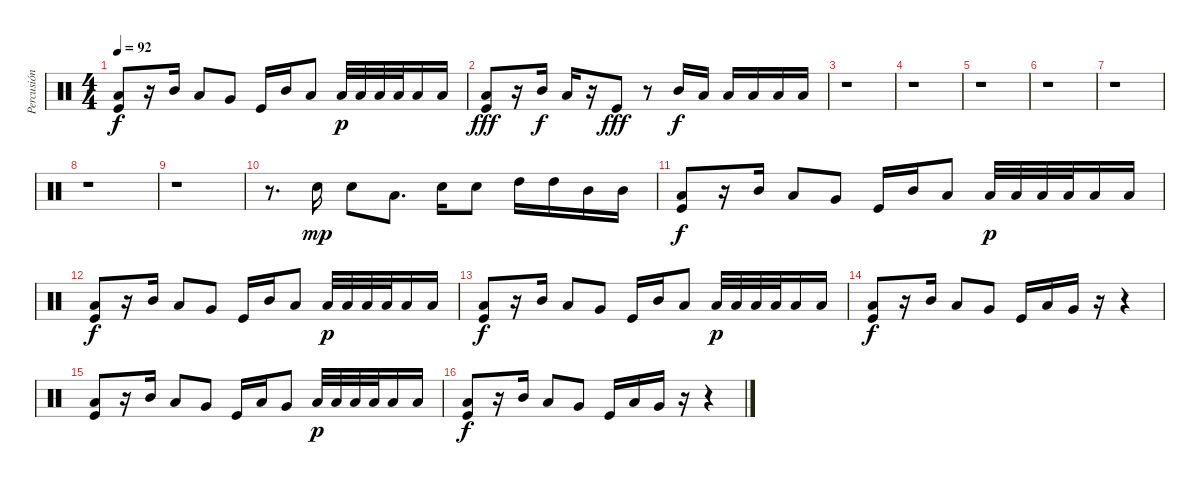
\track ("Percusión" "Percusión") {instrument percussion}
\staff {score}
\articulation defaults
\ts (4 4)
\tempo 92
\clef neutral
\ks c
("Low Tom (hit)" "Kick (hit)").8{dy f} r.16 "Mid Tom (hit)".16 "Low Tom (hit)".8 "Very Low Tom (hit)".8 "Kick (hit)".16 "Mid Tom (hit)".16 "Low Tom (hit)".8 "Low Floor Tom (hit)".32{dy p} "Low Floor Tom (hit)".32 "Low Floor Tom (hit)".32 "Low Floor Tom (hit)".32 "Low Floor Tom (hit)".16 "Low Floor Tom (hit)".16 |
("Low Tom (hit)" "Kick (hit)").8{dy fff} r.16 "Mid Tom (hit)".16{dy f} "Low Tom (hit)".16 r.16 "Kick (hit)".8{dy fff} r.8 "Mid Tom (hit)".16{dy f} "Low Tom (hit)".16 "Low Floor Tom (hit)".16 "Low Floor Tom (hit)".16 "Low Floor Tom (hit)".16 "Low Floor Tom (hit)".16 |
r.1 |
r.1 |
r.1 |
r.1 |
r.1 |
r.1 |
r.1 |
r.8{d} "Electric Snare (hit)".16{dy mp} "Electric Snare (hit)".8 "Low Tom (hit)".8{d} "Electric Snare (hit)".16 "Electric Snare (hit)".8 "High Tom (hit)".16 "High Tom (hit)".16 "Mid Tom (hit)".16 "Mid Tom (hit)".16 |
("Low Tom (hit)" "Kick (hit)").8{dy f} r.16 "Mid Tom (hit)".16 "Low Tom (hit)".8 "Very Low Tom (hit)".8 "Kick (hit)".16 "Mid Tom (hit)".16 "Low Tom (hit)".8 "Low Floor Tom (hit)".32{dy p} "Low Floor Tom (hit)".32 "Low Floor Tom (hit)".32 "Low Floor Tom (hit)".32 "Low Floor Tom (hit)".16 "Low Floor Tom (hit)".16 |
("Low Tom (hit)" "Kick (hit)").8{dy f} r.16 "Mid Tom (hit)".16 "Low Tom (hit)".8 "Very Low Tom (hit)".8 "Kick (hit)".16 "Mid Tom (hit)".16 "Low Tom (hit)".8 "Low Floor Tom (hit)".32{dy p} "Low Floor Tom (hit)".32 "Low Floor Tom (hit)".32 "Low Floor Tom (hit)".32 "Low Floor Tom (hit)".16 "Low Floor Tom (hit)".16 |
("Low Tom (hit)" "Kick (hit)").8{dy f} r.16 "Mid Tom (hit)".16 "Low Tom (hit)".8 "Very Low Tom (hit)".8 "Kick (hit)".16 "Mid Tom (hit)".16 "Low Tom (hit)".8 "Low Floor Tom (hit)".32{dy p} "Low Floor Tom (hit)".32 "Low Floor Tom (hit)".32 "Low Floor Tom (hit)".32 "Low Floor Tom (hit)".16 "Low Floor Tom (hit)".16 |
("Low Tom (hit)" "Kick (hit)").8{dy f} r.16 "Mid Tom (hit)".16 "Low Tom (hit)".8 "Very Low Tom (hit)".8 "Kick (hit)".16 "Low Tom (hit)".16 "Very Low Tom (hit)".16 r.16 r.4 |
("Low Tom (hit)" "Kick (hit)").8 r.16 "Mid Tom (hit)".16 "Low Tom (hit)".8 "Very Low Tom (hit)".8 "Kick (hit)".16 "Low Tom (hit)".16 "Very Low Tom (hit)".8 "Low Floor Tom (hit)".32{dy p} "Low Floor Tom (hit)".32 "Low Floor Tom (hit)".32 "Low Floor Tom (hit)".32 "Low Floor Tom (hit)".16 "Low Floor Tom (hit)".16 |
("Low Tom (hit)" "Kick (hit)").8{dy f} r.16 "Mid Tom (hit)".16 "Low Tom (hit)".8 "Very Low Tom (hit)".8 "Kick (hit)".16 "Low Tom (hit)".16 "Very Low Tom (hit)".16 r.16 r.4
